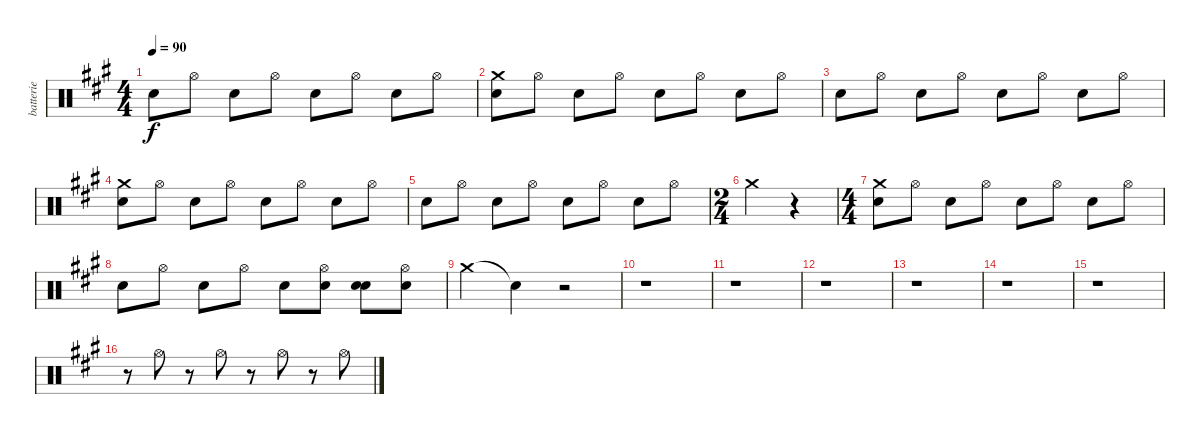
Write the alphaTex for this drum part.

\track ("batterie" "batterie") {instrument percussion}
\staff {score}
\articulation defaults
\ts (4 4)
\tempo 90
\clef neutral
\ks f#minor "Electric Snare (hit)".8{dy f} "Hi-Hat (open)".8 "Electric Snare (hit)".8 "Hi-Hat (open)".8 "Electric Snare (hit)".8 "Hi-Hat (open)".8 "Electric Snare (hit)".8 "Hi-Hat (open)".8
|
("Crash medium (hit)" "Electric Snare (hit)").8 "Hi-Hat (open)".8 "Electric Snare (hit)".8 "Hi-Hat (open)".8 "Electric Snare (hit)".8 "Hi-Hat (open)".8 "Electric Snare (hit)".8 "Hi-Hat (open)".8 |
"Electric Snare (hit)".8 "Hi-Hat (open)".8 "Electric Snare (hit)".8 "Hi-Hat (open)".8 "Electric Snare (hit)".8 "Hi-Hat (open)".8 "Electric Snare (hit)".8 "Hi-Hat (open)".8 |
("Crash medium (hit)" "Electric Snare (hit)").8 "Hi-Hat (open)".8 "Electric Snare (hit)".8 "Hi-Hat (open)".8 "Electric Snare (hit)".8 "Hi-Hat (open)".8 "Electric Snare (hit)".8 "Hi-Hat (open)".8 |
"Electric Snare (hit)".8 "Hi-Hat (open)".8 "Electric Snare (hit)".8 "Hi-Hat (open)".8 "Electric Snare (hit)".8 "Hi-Hat (open)".8 "Electric Snare (hit)".8 "Hi-Hat (open)".8 |
\ts (2 4)
"Crash medium (hit)".4 r.4 |
\ts (4 4)
("Crash medium (hit)" "Electric Snare (hit)").8 "Hi-Hat (open)".8 "Electric Snare (hit)".8 "Hi-Hat (open)".8 "Electric Snare (hit)".8 "Hi-Hat (open)".8 "Electric Snare (hit)".8 "Hi-Hat (open)".8 |
"Electric Snare (hit)".8 "Hi-Hat (open)".8 "Electric Snare (hit)".8 "Hi-Hat (open)".8 "Electric Snare (hit)".8 ("Snare (hit) 2" "Hi-Hat (open)").8 ("Snare (hit) 2" "Electric Snare (hit)").8 ("Snare (hit) 2" "Hi-Hat (open)").8 |
"Crash medium (hit)".4 "Snare (hit)"{t}.4 r.2 |
r.1 |
r.1 |
r.1 |
r.1 |
r.1 |
r.1 |
r.8 "Hi-Hat (open)".8 r.8 "Hi-Hat (open)".8 r.8 "Hi-Hat (open)".8 r.8 "Hi-Hat (open)".8
